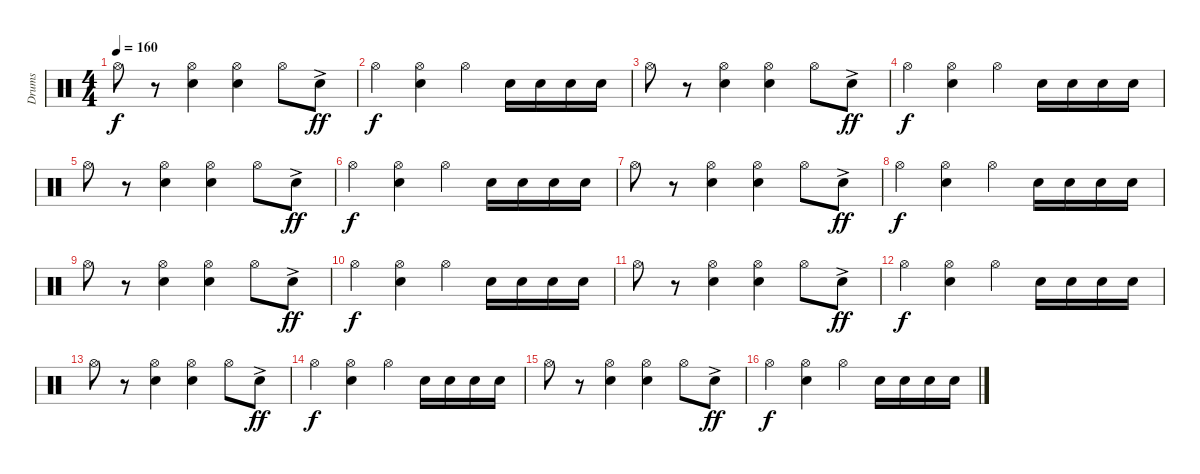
\track ("Drums" "Drums") {instrument percussion}
\staff {score}
\articulation defaults
\ts (4 4)
\tempo 160
\clef neutral
\ks c "Hi-Hat (open)".8{dy f}
r.8 ("Hi-Hat (open)" "Electric Snare (hit)").4 ("Hi-Hat (open)" "Electric Snare (hit)").4 "Hi-Hat (open)".8 "Electric Snare (hit)"{ac}.8{dy ff} |
"Hi-Hat (open)".4{dy f} ("Hi-Hat (open)" "Electric Snare (hit)").4 "Hi-Hat (open)".4 "Electric Snare (hit)".16 "Electric Snare (hit)".16 "Electric Snare (hit)".16 "Electric Snare (hit)".16 |
"Hi-Hat (open)".8 r.8 ("Hi-Hat (open)" "Electric Snare (hit)").4 ("Hi-Hat (open)" "Electric Snare (hit)").4 "Hi-Hat (open)".8 "Electric Snare (hit)"{ac}.8{dy ff} |
"Hi-Hat (open)".4{dy f} ("Hi-Hat (open)" "Electric Snare (hit)").4 "Hi-Hat (open)".4 "Electric Snare (hit)".16 "Electric Snare (hit)".16 "Electric Snare (hit)".16 "Electric Snare (hit)".16 |
"Hi-Hat (open)".8 r.8 ("Hi-Hat (open)" "Electric Snare (hit)").4 ("Hi-Hat (open)" "Electric Snare (hit)").4 "Hi-Hat (open)".8 "Electric Snare (hit)"{ac}.8{dy ff} |
"Hi-Hat (open)".4{dy f} ("Hi-Hat (open)" "Electric Snare (hit)").4 "Hi-Hat (open)".4 "Electric Snare (hit)".16 "Electric Snare (hit)".16 "Electric Snare (hit)".16 "Electric Snare (hit)".16 |
"Hi-Hat (open)".8 r.8 ("Hi-Hat (open)" "Electric Snare (hit)").4 ("Hi-Hat (open)" "Electric Snare (hit)").4 "Hi-Hat (open)".8 "Electric Snare (hit)"{ac}.8{dy ff} |
"Hi-Hat (open)".4{dy f} ("Hi-Hat (open)" "Electric Snare (hit)").4 "Hi-Hat (open)".4 "Electric Snare (hit)".16 "Electric Snare (hit)".16 "Electric Snare (hit)".16 "Electric Snare (hit)".16 |
"Hi-Hat (open)".8 r.8 ("Hi-Hat (open)" "Electric Snare (hit)").4 ("Hi-Hat (open)" "Electric Snare (hit)").4 "Hi-Hat (open)".8 "Electric Snare (hit)"{ac}.8{dy ff} |
"Hi-Hat (open)".4{dy f} ("Hi-Hat (open)" "Electric Snare (hit)").4 "Hi-Hat (open)".4 "Electric Snare (hit)".16 "Electric Snare (hit)".16 "Electric Snare (hit)".16 "Electric Snare (hit)".16 |
"Hi-Hat (open)".8 r.8 ("Hi-Hat (open)" "Electric Snare (hit)").4 ("Hi-Hat (open)" "Electric Snare (hit)").4 "Hi-Hat (open)".8 "Electric Snare (hit)"{ac}.8{dy ff} |
"Hi-Hat (open)".4{dy f} ("Hi-Hat (open)" "Electric Snare (hit)").4 "Hi-Hat (open)".4 "Electric Snare (hit)".16 "Electric Snare (hit)".16 "Electric Snare (hit)".16 "Electric Snare (hit)".16 |
"Hi-Hat (open)".8 r.8 ("Hi-Hat (open)" "Electric Snare (hit)").4 ("Hi-Hat (open)" "Electric Snare (hit)").4 "Hi-Hat (open)".8 "Electric Snare (hit)"{ac}.8{dy ff} |
"Hi-Hat (open)".4{dy f} ("Hi-Hat (open)" "Electric Snare (hit)").4 "Hi-Hat (open)".4 "Electric Snare (hit)".16 "Electric Snare (hit)".16 "Electric Snare (hit)".16 "Electric Snare (hit)".16 |
"Hi-Hat (open)".8 r.8 ("Hi-Hat (open)" "Electric Snare (hit)").4 ("Hi-Hat (open)" "Electric Snare (hit)").4 "Hi-Hat (open)".8 "Electric Snare (hit)"{ac}.8{dy ff} |
"Hi-Hat (open)".4{dy f} ("Hi-Hat (open)" "Electric Snare (hit)").4 "Hi-Hat (open)".4 "Electric Snare (hit)".16 "Electric Snare (hit)".16 "Electric Snare (hit)".16 "Electric Snare (hit)".16
